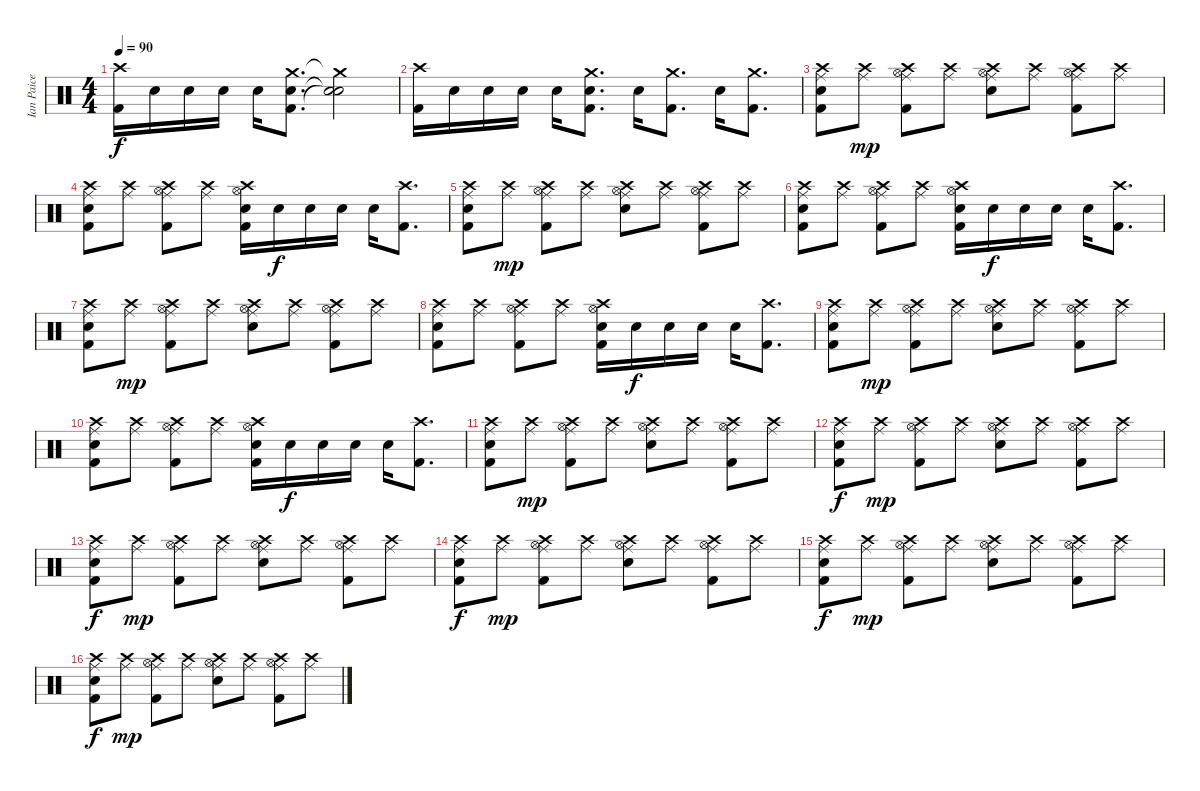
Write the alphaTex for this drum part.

\track ("Ian Paice (Percusion)" "Ian Paice ") {instrument percussion}
\staff {score}
\articulation defaults
\ts (4 4)
\tempo 90
\clef neutral
\ks c
("Crash high (hit)" "Kick (hit) 2").16{dy f} "Electric Snare (hit)".16 "Electric Snare (hit)".16 "Electric Snare (hit)".16 "Electric Snare (hit)".16 ("Crash medium (hit)" "Electric Snare (hit)" "Kick (hit) 2").8{d} ("Crash medium (hit)"{t} "Snare (hit)"{t} "Snare (hit)"{t}).2 |
("Crash high (hit)" "Kick (hit) 2").16 "Electric Snare (hit)".16 "Electric Snare (hit)".16 "Electric Snare (hit)".16 "Electric Snare (hit)".16 ("Crash medium (hit)" "Electric Snare (hit)" "Kick (hit) 2").8{d} "Electric Snare (hit)".16 ("Crash medium (hit)" "Kick (hit) 2").8{d} "Electric Snare (hit)".16 ("Crash medium (hit)" "Kick (hit) 2").8{d} |
("Kick (hit) 2" "Crash high (hit)" "Ride (middle)" "Electric Snare (hit)").8 ("Crash high (hit)" "Ride (middle)").8{dy mp} ("Hi-Hat (open)" "Crash high (hit)" "Ride (middle)" "Kick (hit) 2").8 ("Crash high (hit)" "Ride (middle)").8 ("Hi-Hat (open)" "Crash high (hit)" "Ride (middle)" "Electric Snare (hit)").8 ("Crash high (hit)" "Ride (middle)").8 ("Hi-Hat (open)" "Crash high (hit)" "Ride (middle)" "Kick (hit) 2").8 ("Crash high (hit)" "Ride (middle)").8 |
("Kick (hit) 2" "Crash high (hit)" "Ride (middle)" "Electric Snare (hit)").8 ("Crash high (hit)" "Ride (middle)").8 ("Hi-Hat (open)" "Crash high (hit)" "Ride (middle)" "Kick (hit) 2").8 ("Crash high (hit)" "Ride (middle)").8 ("Crash high (hit)" "Hi-Hat (open)" "Kick (hit) 2" "Electric Snare (hit)").16 "Electric Snare (hit)".16{dy f} "Electric Snare (hit)".16 "Electric Snare (hit)".16 "Electric Snare (hit)".16 ("Crash high (hit)" "Kick (hit) 2").8{d} |
("Kick (hit) 2" "Crash high (hit)" "Ride (middle)" "Electric Snare (hit)").8 ("Crash high (hit)" "Ride (middle)").8{dy mp} ("Hi-Hat (open)" "Crash high (hit)" "Ride (middle)" "Kick (hit) 2").8 ("Crash high (hit)" "Ride (middle)").8 ("Hi-Hat (open)" "Crash high (hit)" "Ride (middle)" "Electric Snare (hit)").8 ("Crash high (hit)" "Ride (middle)").8 ("Hi-Hat (open)" "Crash high (hit)" "Ride (middle)" "Kick (hit) 2").8 ("Crash high (hit)" "Ride (middle)").8 |
("Kick (hit) 2" "Crash high (hit)" "Ride (middle)" "Electric Snare (hit)").8 ("Crash high (hit)" "Ride (middle)").8 ("Hi-Hat (open)" "Crash high (hit)" "Ride (middle)" "Kick (hit) 2").8 ("Crash high (hit)" "Ride (middle)").8 ("Crash high (hit)" "Hi-Hat (open)" "Kick (hit) 2" "Electric Snare (hit)").16 "Electric Snare (hit)".16{dy f} "Electric Snare (hit)".16 "Electric Snare (hit)".16 "Electric Snare (hit)".16 ("Crash high (hit)" "Kick (hit) 2").8{d} |
("Kick (hit) 2" "Crash high (hit)" "Ride (middle)" "Electric Snare (hit)").8 ("Crash high (hit)" "Ride (middle)").8{dy mp} ("Hi-Hat (open)" "Crash high (hit)" "Ride (middle)" "Kick (hit) 2").8 ("Crash high (hit)" "Ride (middle)").8 ("Hi-Hat (open)" "Crash high (hit)" "Ride (middle)" "Electric Snare (hit)").8 ("Crash high (hit)" "Ride (middle)").8 ("Hi-Hat (open)" "Crash high (hit)" "Ride (middle)" "Kick (hit) 2").8 ("Crash high (hit)" "Ride (middle)").8 |
("Kick (hit) 2" "Crash high (hit)" "Ride (middle)" "Electric Snare (hit)").8 ("Crash high (hit)" "Ride (middle)").8 ("Hi-Hat (open)" "Crash high (hit)" "Ride (middle)" "Kick (hit) 2").8 ("Crash high (hit)" "Ride (middle)").8 ("Crash high (hit)" "Hi-Hat (open)" "Kick (hit) 2" "Electric Snare (hit)").16 "Electric Snare (hit)".16{dy f} "Electric Snare (hit)".16 "Electric Snare (hit)".16 "Electric Snare (hit)".16 ("Crash high (hit)" "Kick (hit) 2").8{d} |
("Kick (hit) 2" "Crash high (hit)" "Ride (middle)" "Electric Snare (hit)").8 ("Crash high (hit)" "Ride (middle)").8{dy mp} ("Hi-Hat (open)" "Crash high (hit)" "Ride (middle)" "Kick (hit) 2").8 ("Crash high (hit)" "Ride (middle)").8 ("Hi-Hat (open)" "Crash high (hit)" "Ride (middle)" "Electric Snare (hit)").8 ("Crash high (hit)" "Ride (middle)").8 ("Hi-Hat (open)" "Crash high (hit)" "Ride (middle)" "Kick (hit) 2").8 ("Crash high (hit)" "Ride (middle)").8 |
("Kick (hit) 2" "Crash high (hit)" "Ride (middle)" "Electric Snare (hit)").8 ("Crash high (hit)" "Ride (middle)").8 ("Hi-Hat (open)" "Crash high (hit)" "Ride (middle)" "Kick (hit) 2").8 ("Crash high (hit)" "Ride (middle)").8 ("Crash high (hit)" "Hi-Hat (open)" "Kick (hit) 2" "Electric Snare (hit)").16 "Electric Snare (hit)".16{dy f} "Electric Snare (hit)".16 "Electric Snare (hit)".16 "Electric Snare (hit)".16 ("Crash high (hit)" "Kick (hit) 2").8{d} |
("Kick (hit) 2" "Crash high (hit)" "Ride (middle)" "Electric Snare (hit)").8 ("Crash high (hit)" "Ride (middle)").8{dy mp} ("Hi-Hat (open)" "Crash high (hit)" "Ride (middle)" "Kick (hit) 2").8 ("Crash high (hit)" "Ride (middle)").8 ("Hi-Hat (open)" "Crash high (hit)" "Ride (middle)" "Electric Snare (hit)").8 ("Crash high (hit)" "Ride (middle)").8 ("Hi-Hat (open)" "Crash high (hit)" "Ride (middle)" "Kick (hit) 2").8 ("Crash high (hit)" "Ride (middle)").8 |
("Kick (hit) 2" "Crash high (hit)" "Ride (middle)" "Electric Snare (hit)").8{dy f} ("Crash high (hit)" "Ride (middle)").8{dy mp} ("Hi-Hat (open)" "Crash high (hit)" "Ride (middle)" "Kick (hit) 2").8 ("Crash high (hit)" "Ride (middle)").8 ("Hi-Hat (open)" "Crash high (hit)" "Ride (middle)" "Electric Snare (hit)").8 ("Crash high (hit)" "Ride (middle)").8 ("Hi-Hat (open)" "Crash high (hit)" "Ride (middle)" "Kick (hit) 2").8 ("Crash high (hit)" "Ride (middle)").8 |
("Kick (hit) 2" "Crash high (hit)" "Ride (middle)" "Electric Snare (hit)").8{dy f} ("Crash high (hit)" "Ride (middle)").8{dy mp} ("Hi-Hat (open)" "Crash high (hit)" "Ride (middle)" "Kick (hit) 2").8 ("Crash high (hit)" "Ride (middle)").8 ("Hi-Hat (open)" "Crash high (hit)" "Ride (middle)" "Electric Snare (hit)").8 ("Crash high (hit)" "Ride (middle)").8 ("Hi-Hat (open)" "Crash high (hit)" "Ride (middle)" "Kick (hit) 2").8 ("Crash high (hit)" "Ride (middle)").8 |
("Kick (hit) 2" "Crash high (hit)" "Ride (middle)" "Electric Snare (hit)").8{dy f} ("Crash high (hit)" "Ride (middle)").8{dy mp} ("Hi-Hat (open)" "Crash high (hit)" "Ride (middle)" "Kick (hit) 2").8 ("Crash high (hit)" "Ride (middle)").8 ("Hi-Hat (open)" "Crash high (hit)" "Ride (middle)" "Electric Snare (hit)").8 ("Crash high (hit)" "Ride (middle)").8 ("Hi-Hat (open)" "Crash high (hit)" "Ride (middle)" "Kick (hit) 2").8 ("Crash high (hit)" "Ride (middle)").8 |
("Kick (hit) 2" "Crash high (hit)" "Ride (middle)" "Electric Snare (hit)").8{dy f} ("Crash high (hit)" "Ride (middle)").8{dy mp} ("Hi-Hat (open)" "Crash high (hit)" "Ride (middle)" "Kick (hit) 2").8 ("Crash high (hit)" "Ride (middle)").8 ("Hi-Hat (open)" "Crash high (hit)" "Ride (middle)" "Electric Snare (hit)").8 ("Crash high (hit)" "Ride (middle)").8 ("Hi-Hat (open)" "Crash high (hit)" "Ride (middle)" "Kick (hit) 2").8 ("Crash high (hit)" "Ride (middle)").8 |
("Kick (hit) 2" "Crash high (hit)" "Ride (middle)" "Electric Snare (hit)").8{dy f} ("Crash high (hit)" "Ride (middle)").8{dy mp} ("Hi-Hat (open)" "Crash high (hit)" "Ride (middle)" "Kick (hit) 2").8 ("Crash high (hit)" "Ride (middle)").8 ("Hi-Hat (open)" "Crash high (hit)" "Ride (middle)" "Electric Snare (hit)").8 ("Crash high (hit)" "Ride (middle)").8 ("Hi-Hat (open)" "Crash high (hit)" "Ride (middle)" "Kick (hit) 2").8 ("Crash high (hit)" "Ride (middle)").8
